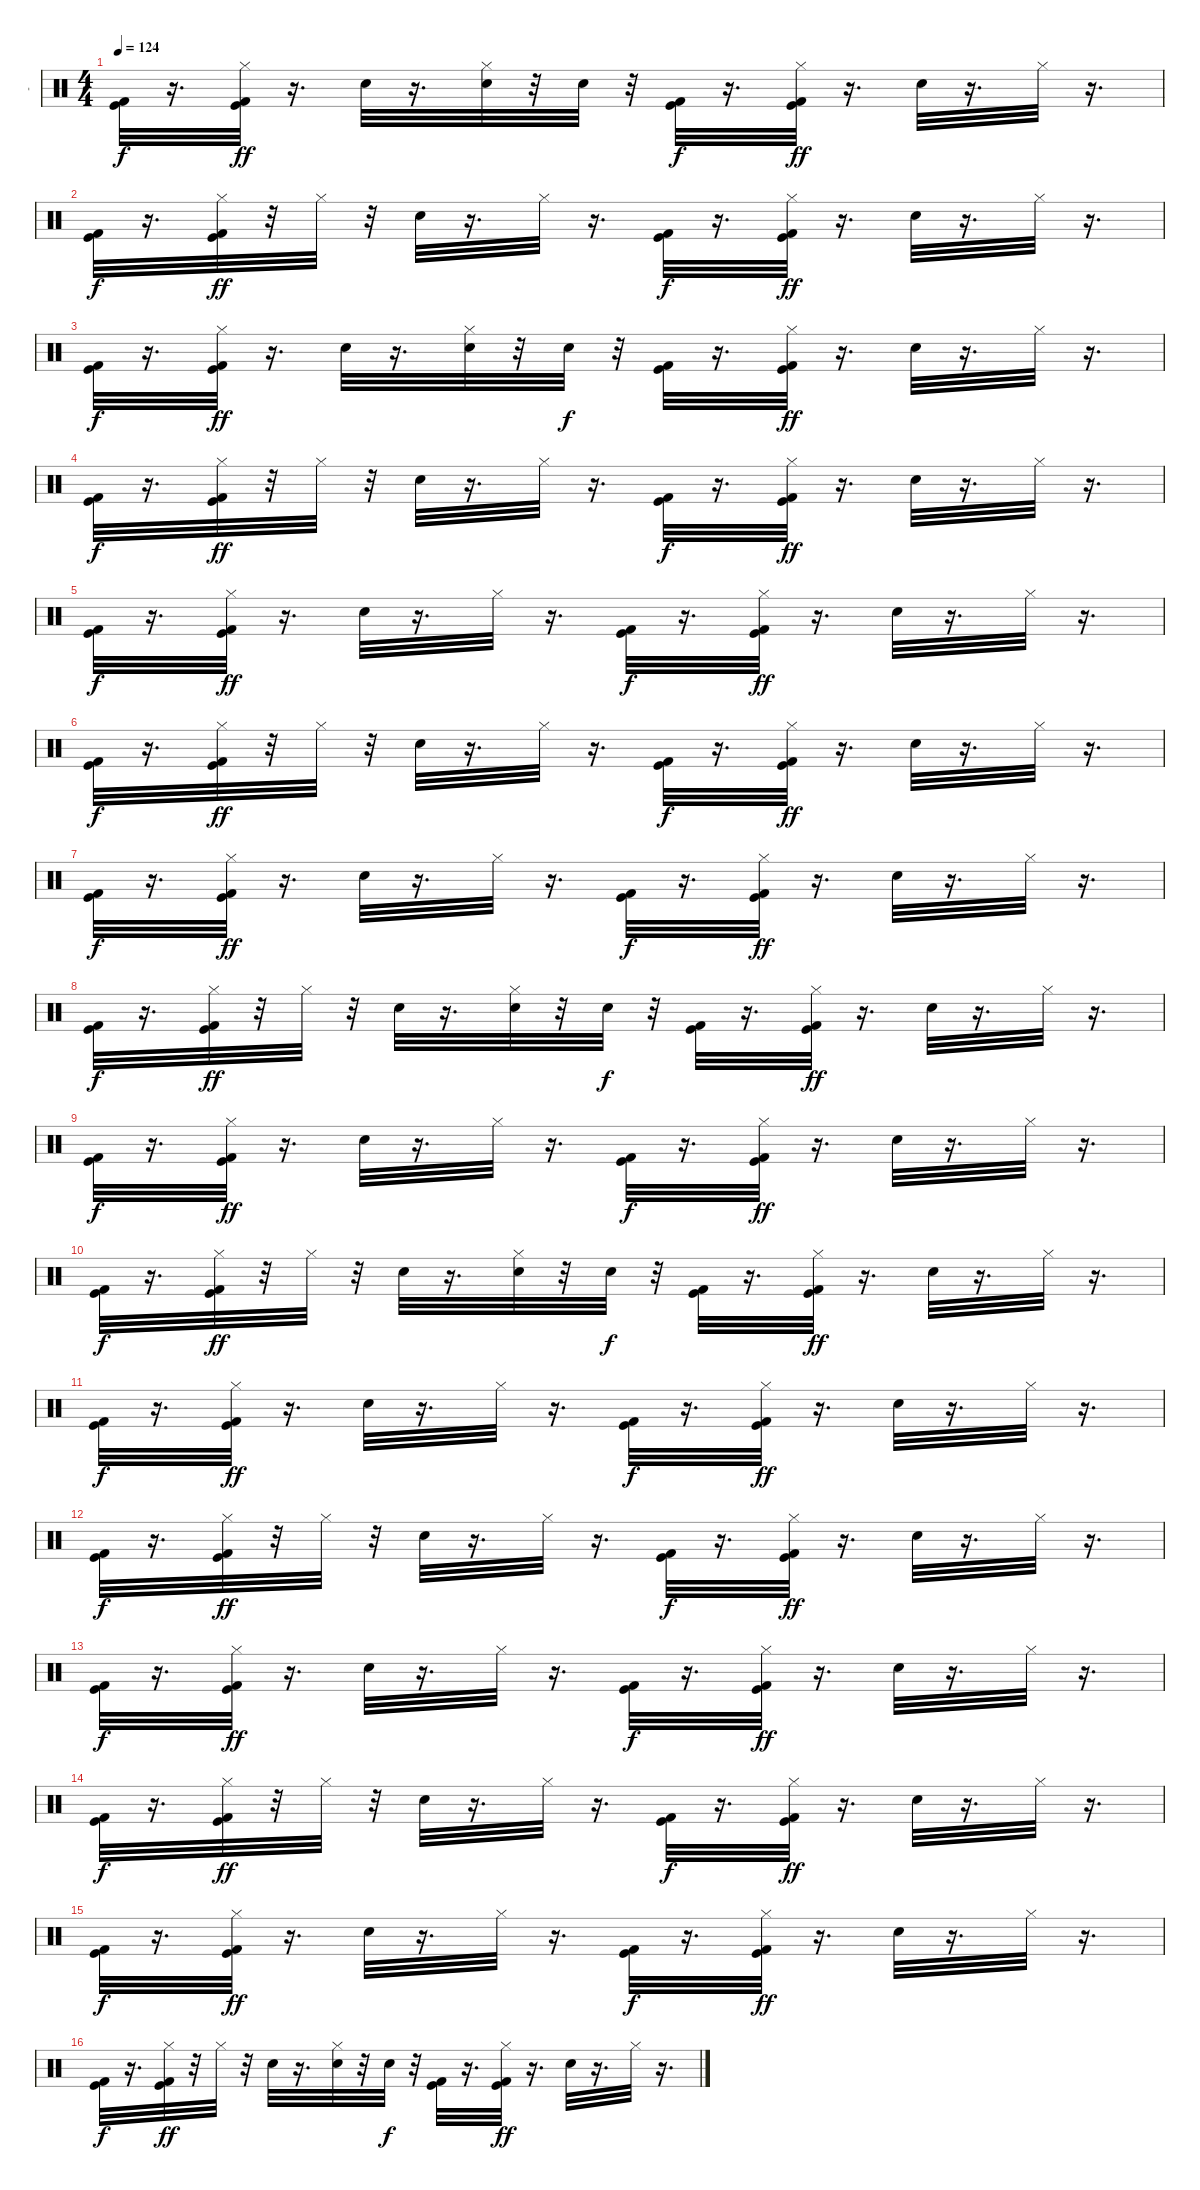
\track ("-" "-") {instrument percussion}
\staff {score}
\articulation defaults
\ts (4 4)
\tempo 124
\clef neutral
\ks c
("Kick (hit)" "Kick (hit) 2").32{dy f} r.16{d} ("Kick (hit)" "Kick (hit) 2" "Hi-Hat (closed)").32{dy ff} r.16{d} "Snare (hit) 2".32 r.16{d} ("Snare (hit) 2" "Hi-Hat (closed)").32 r.32 "Snare (hit) 2".32 r.32 ("Kick (hit)" "Kick (hit) 2").32{dy f} r.16{d} ("Kick (hit)" "Kick (hit) 2" "Hi-Hat (closed)").32{dy ff} r.16{d} "Snare (hit) 2".32 r.16{d} "Hi-Hat (closed)".32 r.16{d} |
("Kick (hit)" "Kick (hit) 2").32{dy f} r.16{d} ("Kick (hit)" "Kick (hit) 2" "Hi-Hat (closed)").32{dy ff} r.32 "Hi-Hat (closed)".32 r.32 "Snare (hit) 2".32 r.16{d} "Hi-Hat (closed)".32 r.16{d} ("Kick (hit)" "Kick (hit) 2").32{dy f} r.16{d} ("Kick (hit)" "Kick (hit) 2" "Hi-Hat (closed)").32{dy ff} r.16{d} "Snare (hit) 2".32 r.16{d} "Hi-Hat (closed)".32 r.16{d} |
("Kick (hit)" "Kick (hit) 2").32{dy f} r.16{d} ("Kick (hit)" "Kick (hit) 2" "Hi-Hat (closed)").32{dy ff} r.16{d} "Snare (hit) 2".32 r.16{d} ("Snare (hit) 2" "Hi-Hat (closed)").32 r.32 "Snare (hit) 2".32{dy f} r.32 ("Kick (hit)" "Kick (hit) 2").32 r.16{d} ("Kick (hit)" "Kick (hit) 2" "Hi-Hat (closed)").32{dy ff} r.16{d} "Snare (hit) 2".32 r.16{d} "Hi-Hat (closed)".32 r.16{d} |
("Kick (hit)" "Kick (hit) 2").32{dy f} r.16{d} ("Kick (hit)" "Kick (hit) 2" "Hi-Hat (closed)").32{dy ff} r.32 "Hi-Hat (closed)".32 r.32 "Snare (hit) 2".32 r.16{d} "Hi-Hat (closed)".32 r.16{d} ("Kick (hit)" "Kick (hit) 2").32{dy f} r.16{d} ("Kick (hit)" "Kick (hit) 2" "Hi-Hat (closed)").32{dy ff} r.16{d} "Snare (hit) 2".32 r.16{d} "Hi-Hat (closed)".32 r.16{d} |
("Kick (hit)" "Kick (hit) 2").32{dy f} r.16{d} ("Kick (hit)" "Kick (hit) 2" "Hi-Hat (closed)").32{dy ff} r.16{d} "Snare (hit) 2".32 r.16{d} "Hi-Hat (closed)".32 r.16{d} ("Kick (hit)" "Kick (hit) 2").32{dy f} r.16{d} ("Kick (hit)" "Kick (hit) 2" "Hi-Hat (closed)").32{dy ff} r.16{d} "Snare (hit) 2".32 r.16{d} "Hi-Hat (closed)".32 r.16{d} |
("Kick (hit)" "Kick (hit) 2").32{dy f} r.16{d} ("Kick (hit)" "Kick (hit) 2" "Hi-Hat (closed)").32{dy ff} r.32 "Hi-Hat (closed)".32 r.32 "Snare (hit) 2".32 r.16{d} "Hi-Hat (closed)".32 r.16{d} ("Kick (hit)" "Kick (hit) 2").32{dy f} r.16{d} ("Kick (hit)" "Kick (hit) 2" "Hi-Hat (closed)").32{dy ff} r.16{d} "Snare (hit) 2".32 r.16{d} "Hi-Hat (closed)".32 r.16{d} |
("Kick (hit)" "Kick (hit) 2").32{dy f} r.16{d} ("Kick (hit)" "Kick (hit) 2" "Hi-Hat (closed)").32{dy ff} r.16{d} "Snare (hit) 2".32 r.16{d} "Hi-Hat (closed)".32 r.16{d} ("Kick (hit)" "Kick (hit) 2").32{dy f} r.16{d} ("Kick (hit)" "Kick (hit) 2" "Hi-Hat (closed)").32{dy ff} r.16{d} "Snare (hit) 2".32 r.16{d} "Hi-Hat (closed)".32 r.16{d} |
("Kick (hit)" "Kick (hit) 2").32{dy f} r.16{d} ("Kick (hit)" "Kick (hit) 2" "Hi-Hat (closed)").32{dy ff} r.32 "Hi-Hat (closed)".32 r.32 "Snare (hit) 2".32 r.16{d} ("Snare (hit) 2" "Hi-Hat (closed)").32 r.32 "Snare (hit) 2".32{dy f} r.32 ("Kick (hit)" "Kick (hit) 2").32 r.16{d} ("Kick (hit)" "Kick (hit) 2" "Hi-Hat (closed)").32{dy ff} r.16{d} "Snare (hit) 2".32 r.16{d} "Hi-Hat (closed)".32 r.16{d} |
("Kick (hit)" "Kick (hit) 2").32{dy f} r.16{d} ("Kick (hit)" "Kick (hit) 2" "Hi-Hat (closed)").32{dy ff} r.16{d} "Snare (hit) 2".32 r.16{d} "Hi-Hat (closed)".32 r.16{d} ("Kick (hit)" "Kick (hit) 2").32{dy f} r.16{d} ("Kick (hit)" "Kick (hit) 2" "Hi-Hat (closed)").32{dy ff} r.16{d} "Snare (hit) 2".32 r.16{d} "Hi-Hat (closed)".32 r.16{d} |
("Kick (hit)" "Kick (hit) 2").32{dy f} r.16{d} ("Kick (hit)" "Kick (hit) 2" "Hi-Hat (closed)").32{dy ff} r.32 "Hi-Hat (closed)".32 r.32 "Snare (hit) 2".32 r.16{d} ("Snare (hit) 2" "Hi-Hat (closed)").32 r.32 "Snare (hit) 2".32{dy f} r.32 ("Kick (hit)" "Kick (hit) 2").32 r.16{d} ("Kick (hit)" "Kick (hit) 2" "Hi-Hat (closed)").32{dy ff} r.16{d} "Snare (hit) 2".32 r.16{d} "Hi-Hat (closed)".32 r.16{d} |
("Kick (hit)" "Kick (hit) 2").32{dy f} r.16{d} ("Kick (hit)" "Kick (hit) 2" "Hi-Hat (closed)").32{dy ff} r.16{d} "Snare (hit) 2".32 r.16{d} "Hi-Hat (closed)".32 r.16{d} ("Kick (hit)" "Kick (hit) 2").32{dy f} r.16{d} ("Kick (hit)" "Kick (hit) 2" "Hi-Hat (closed)").32{dy ff} r.16{d} "Snare (hit) 2".32 r.16{d} "Hi-Hat (closed)".32 r.16{d} |
("Kick (hit)" "Kick (hit) 2").32{dy f} r.16{d} ("Kick (hit)" "Kick (hit) 2" "Hi-Hat (closed)").32{dy ff} r.32 "Hi-Hat (closed)".32 r.32 "Snare (hit) 2".32 r.16{d} "Hi-Hat (closed)".32 r.16{d} ("Kick (hit)" "Kick (hit) 2").32{dy f} r.16{d} ("Kick (hit)" "Kick (hit) 2" "Hi-Hat (closed)").32{dy ff} r.16{d} "Snare (hit) 2".32 r.16{d} "Hi-Hat (closed)".32 r.16{d} |
("Kick (hit)" "Kick (hit) 2").32{dy f} r.16{d} ("Kick (hit)" "Kick (hit) 2" "Hi-Hat (closed)").32{dy ff} r.16{d} "Snare (hit) 2".32 r.16{d} "Hi-Hat (closed)".32 r.16{d} ("Kick (hit)" "Kick (hit) 2").32{dy f} r.16{d} ("Kick (hit)" "Kick (hit) 2" "Hi-Hat (closed)").32{dy ff} r.16{d} "Snare (hit) 2".32 r.16{d} "Hi-Hat (closed)".32 r.16{d} |
("Kick (hit)" "Kick (hit) 2").32{dy f} r.16{d} ("Kick (hit)" "Kick (hit) 2" "Hi-Hat (closed)").32{dy ff} r.32 "Hi-Hat (closed)".32 r.32 "Snare (hit) 2".32 r.16{d} "Hi-Hat (closed)".32 r.16{d} ("Kick (hit)" "Kick (hit) 2").32{dy f} r.16{d} ("Kick (hit)" "Kick (hit) 2" "Hi-Hat (closed)").32{dy ff} r.16{d} "Snare (hit) 2".32 r.16{d} "Hi-Hat (closed)".32 r.16{d} |
("Kick (hit)" "Kick (hit) 2").32{dy f} r.16{d} ("Kick (hit)" "Kick (hit) 2" "Hi-Hat (closed)").32{dy ff} r.16{d} "Snare (hit) 2".32 r.16{d} "Hi-Hat (closed)".32 r.16{d} ("Kick (hit)" "Kick (hit) 2").32{dy f} r.16{d} ("Kick (hit)" "Kick (hit) 2" "Hi-Hat (closed)").32{dy ff} r.16{d} "Snare (hit) 2".32 r.16{d} "Hi-Hat (closed)".32 r.16{d} |
("Kick (hit)" "Kick (hit) 2").32{dy f} r.16{d} ("Kick (hit)" "Kick (hit) 2" "Hi-Hat (closed)").32{dy ff} r.32 "Hi-Hat (closed)".32 r.32 "Snare (hit) 2".32 r.16{d} ("Snare (hit) 2" "Hi-Hat (closed)").32 r.32 "Snare (hit) 2".32{dy f} r.32 ("Kick (hit)" "Kick (hit) 2").32 r.16{d} ("Kick (hit)" "Kick (hit) 2" "Hi-Hat (closed)").32{dy ff} r.16{d} "Snare (hit) 2".32 r.16{d} "Hi-Hat (closed)".32 r.16{d}
